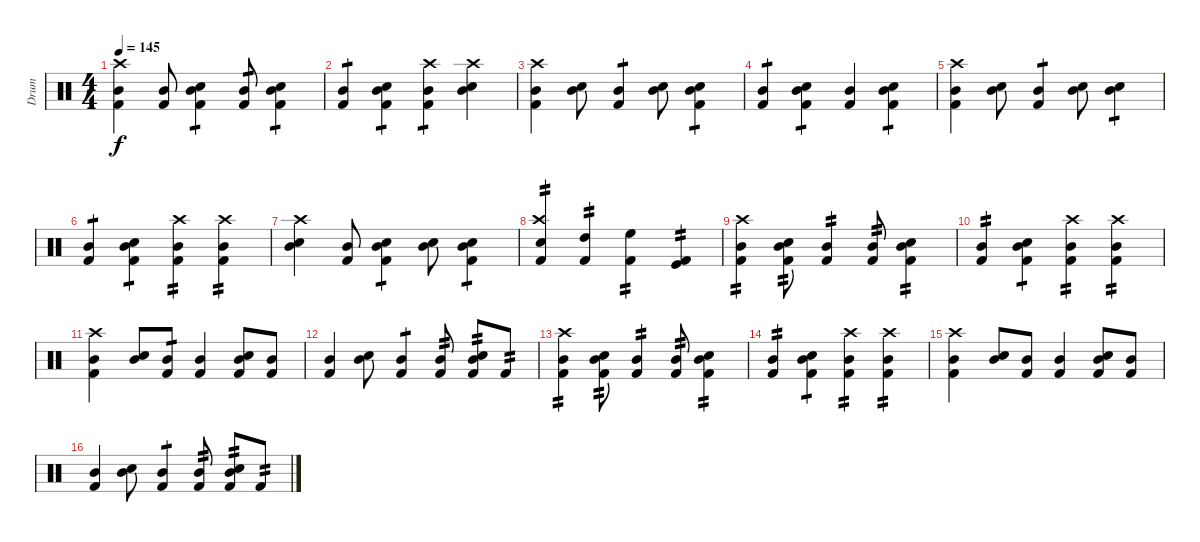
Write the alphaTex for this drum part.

\track ("Drum" "Drum") {instrument percussion}
\staff {score}
\articulation defaults
\ts (4 4)
\tempo 145
\clef neutral
\ks c
("Mid Tom (hit)" "Kick (hit) 2" "Crash high (hit)").4{dy f} ("Mid Tom (hit)" "Kick (hit) 2").8 ("Mid Tom (hit)" "Kick (hit) 2" "Snare (hit) 2").4{tp 1} ("Mid Tom (hit)" "Kick (hit) 2").8{tp 1} ("Mid Tom (hit)" "Snare (hit) 2" "Kick (hit) 2").4{tp 1} |
("Mid Tom (hit)" "Kick (hit) 2").4{tp 1} ("Mid Tom (hit)" "Kick (hit) 2" "Snare (hit) 2").4{tp 1} ("Mid Tom (hit)" "Kick (hit) 2" "Crash high (hit)").4{tp 1} ("Mid Tom (hit)" "Snare (hit) 2" "Crash high (hit)").4 |
("Mid Tom (hit)" "Kick (hit) 2" "Crash high (hit)").4 ("Mid Tom (hit)" "Snare (hit) 2").8 ("Mid Tom (hit)" "Kick (hit) 2").4{tp 1} ("Mid Tom (hit)" "Snare (hit) 2").8 ("Mid Tom (hit)" "Snare (hit) 2" "Kick (hit) 2").4{tp 1} |
("Mid Tom (hit)" "Kick (hit) 2").4{tp 1} ("Mid Tom (hit)" "Kick (hit) 2" "Snare (hit) 2").4{tp 1} ("Mid Tom (hit)" "Kick (hit) 2").4 ("Mid Tom (hit)" "Kick (hit) 2" "Snare (hit) 2").4{tp 1} |
("Mid Tom (hit)" "Kick (hit) 2" "Crash high (hit)").4 ("Mid Tom (hit)" "Snare (hit) 2").8 ("Mid Tom (hit)" "Kick (hit) 2").4{tp 1} ("Mid Tom (hit)" "Snare (hit) 2").8 ("Mid Tom (hit)" "Snare (hit) 2").4{tp 1} |
("Mid Tom (hit)" "Kick (hit) 2").4{tp 1} ("Mid Tom (hit)" "Kick (hit) 2" "Snare (hit) 2").4{tp 1} ("Mid Tom (hit)" "Kick (hit) 2" "Crash high (hit)").4{tp 2} ("Mid Tom (hit)" "Kick (hit) 2" "Crash high (hit)").4{tp 2} |
("Mid Tom (hit)" "Snare (hit) 2" "Crash high (hit)").4 ("Mid Tom (hit)" "Kick (hit) 2").8 ("Mid Tom (hit)" "Kick (hit) 2" "Snare (hit) 2").4{tp 1} ("Mid Tom (hit)" "Snare (hit) 2").8 ("Mid Tom (hit)" "Snare (hit) 2" "Kick (hit) 2").4{tp 1} |
("Crash high (hit)" "Kick (hit) 2" "Snare (hit) 2").4{tp 2} ("High Tom (hit)" "Kick (hit) 2").4{tp 2} ("High Floor Tom (hit)" "Kick (hit) 2").4{tp 2} ("Kick (hit)" "Kick (hit) 2").4{tp 2} |
("Mid Tom (hit)" "Kick (hit) 2" "Crash high (hit)").4{tp 2} ("Mid Tom (hit)" "Kick (hit) 2" "Snare (hit) 2").8{tp 2} ("Mid Tom (hit)" "Kick (hit) 2").4{tp 2} ("Mid Tom (hit)" "Kick (hit) 2").8{tp 2} ("Mid Tom (hit)" "Snare (hit) 2" "Kick (hit) 2").4{tp 2} |
("Mid Tom (hit)" "Kick (hit) 2").4{tp 2} ("Mid Tom (hit)" "Kick (hit) 2" "Snare (hit) 2").4{tp 1} ("Mid Tom (hit)" "Kick (hit) 2" "Crash high (hit)").4{tp 2} ("Mid Tom (hit)" "Kick (hit) 2" "Crash high (hit)").4{tp 2} |
("Mid Tom (hit)" "Kick (hit) 2" "Crash high (hit)").4 ("Mid Tom (hit)" "Snare (hit) 2").8 ("Mid Tom (hit)" "Kick (hit) 2").8{tp 1} ("Mid Tom (hit)" "Kick (hit) 2").4 ("Mid Tom (hit)" "Snare (hit) 2" "Kick (hit) 2").8 ("Mid Tom (hit)" "Kick (hit) 2").8 |
("Mid Tom (hit)" "Kick (hit) 2").4 ("Mid Tom (hit)" "Snare (hit) 2").8 ("Mid Tom (hit)" "Kick (hit) 2").4{tp 1} ("Mid Tom (hit)" "Kick (hit) 2").8{tp 2} ("Mid Tom (hit)" "Snare (hit) 2" "Kick (hit) 2").8{tp 2} "Kick (hit) 2".8{tp 2} |
("Mid Tom (hit)" "Kick (hit) 2" "Crash high (hit)").4{tp 2} ("Mid Tom (hit)" "Kick (hit) 2" "Snare (hit) 2").8{tp 2} ("Mid Tom (hit)" "Kick (hit) 2").4{tp 2} ("Mid Tom (hit)" "Kick (hit) 2").8{tp 2} ("Mid Tom (hit)" "Snare (hit) 2" "Kick (hit) 2").4{tp 2} |
("Mid Tom (hit)" "Kick (hit) 2").4{tp 2} ("Mid Tom (hit)" "Kick (hit) 2" "Snare (hit) 2").4{tp 1} ("Mid Tom (hit)" "Kick (hit) 2" "Crash high (hit)").4{tp 2} ("Mid Tom (hit)" "Kick (hit) 2" "Crash high (hit)").4{tp 2} |
("Mid Tom (hit)" "Kick (hit) 2" "Crash high (hit)").4 ("Mid Tom (hit)" "Snare (hit) 2").8 ("Mid Tom (hit)" "Kick (hit) 2").8 ("Mid Tom (hit)" "Kick (hit) 2").4 ("Mid Tom (hit)" "Kick (hit) 2" "Snare (hit) 2").8 ("Mid Tom (hit)" "Kick (hit) 2").8 |
("Mid Tom (hit)" "Kick (hit) 2").4 ("Mid Tom (hit)" "Snare (hit) 2").8 ("Mid Tom (hit)" "Kick (hit) 2").4{tp 1} ("Mid Tom (hit)" "Kick (hit) 2").8{tp 2} ("Mid Tom (hit)" "Snare (hit) 2" "Kick (hit) 2").8{tp 2} "Kick (hit) 2".8{tp 2}
